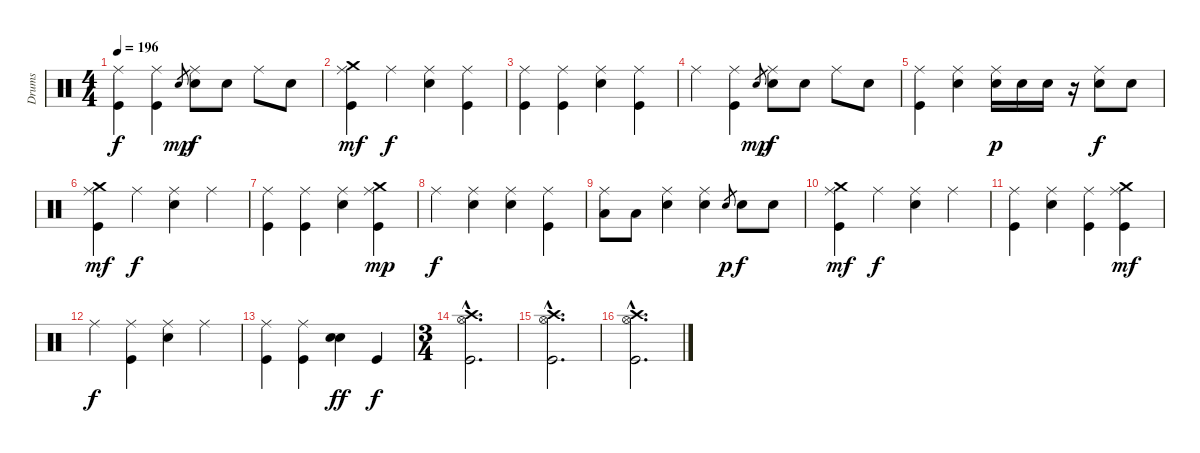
\track ("Drums" "Drums") {instrument percussion}
\staff {score}
\articulation defaults
\ts (4 4)
\tempo 196
\clef neutral
\ks c
("Ride (middle)" "Kick (hit)").4{dy f} ("Ride (middle)" "Kick (hit)").4 "Electric Snare (hit)".8{gr dy mp} ("Ride (middle)" "Electric Snare (hit)").8{dy f} "Electric Snare (hit)".8 "Ride (middle)".8 "Electric Snare (hit)".8 |
("Crash medium (hit)" "Ride (middle)" "Kick (hit)").4{dy mf} "Ride (middle)".4{dy f} ("Ride (middle)" "Electric Snare (hit)").4 ("Ride (middle)" "Kick (hit)").4 |
("Ride (middle)" "Kick (hit)").4 ("Ride (middle)" "Kick (hit)").4 ("Ride (middle)" "Electric Snare (hit)").4 ("Ride (middle)" "Kick (hit)").4 |
"Ride (middle)".4 ("Ride (middle)" "Kick (hit)").4 "Electric Snare (hit)".8{gr dy mp} ("Ride (middle)" "Electric Snare (hit)").8{dy f} "Electric Snare (hit)".8 "Ride (middle)".8 "Electric Snare (hit)".8 |
("Ride (middle)" "Kick (hit)").4 ("Ride (middle)" "Electric Snare (hit)").4 ("Ride (middle)" "Electric Snare (hit)").16{dy p} "Electric Snare (hit)".16 "Electric Snare (hit)".16 r.16 ("Ride (middle)" "Electric Snare (hit)").8{dy f} "Electric Snare (hit)".8 |
("Crash medium (hit)" "Ride (middle)" "Kick (hit)").4{dy mf} "Ride (middle)".4{dy f} ("Ride (middle)" "Electric Snare (hit)").4 "Ride (middle)".4 |
("Ride (middle)" "Kick (hit)").4 ("Ride (middle)" "Kick (hit)").4 ("Ride (middle)" "Electric Snare (hit)").4 ("Crash medium (hit)" "Ride (middle)" "Kick (hit)").4{dy mp} |
"Ride (middle)".4{dy f} ("Ride (middle)" "Electric Snare (hit)").4 ("Ride (middle)" "Electric Snare (hit)").4 ("Ride (middle)" "Kick (hit)").4 |
("Ride (middle)" "Low Tom (hit)").8 "Low Tom (hit)".8 ("Ride (middle)" "Electric Snare (hit)").4 ("Ride (middle)" "Electric Snare (hit)").4 "Electric Snare (hit)".8{gr dy p} "Electric Snare (hit)".8{dy f} "Electric Snare (hit)".8 |
("Crash medium (hit)" "Ride (middle)" "Kick (hit)").4{dy mf} "Ride (middle)".4{dy f} ("Ride (middle)" "Electric Snare (hit)").4 "Ride (middle)".4 |
("Ride (middle)" "Kick (hit)").4 ("Ride (middle)" "Electric Snare (hit)").4 ("Ride (middle)" "Kick (hit)").4 ("Crash medium (hit)" "Ride (middle)" "Kick (hit)").4{dy mf} |
"Ride (middle)".4{dy f} ("Ride (middle)" "Kick (hit)").4 ("Ride (middle)" "Electric Snare (hit)").4 "Ride (middle)".4 |
("Ride (middle)" "Kick (hit)").4 ("Ride (middle)" "Kick (hit)").4 ("Electric Snare (hit)" "Snare (hit) 2").4{dy ff} "Kick (hit)".4{dy f} |
\ts (3 4)
("Crash high (hit)"{hac} "Hi-Hat (open)"{hac} "Kick (hit)"{hac}).2{d} |
("Crash high (hit)"{hac} "Hi-Hat (open)"{hac} "Kick (hit)"{hac}).2{d} |
("Crash high (hit)"{hac} "Hi-Hat (open)"{hac} "Kick (hit)"{hac}).2{d}
